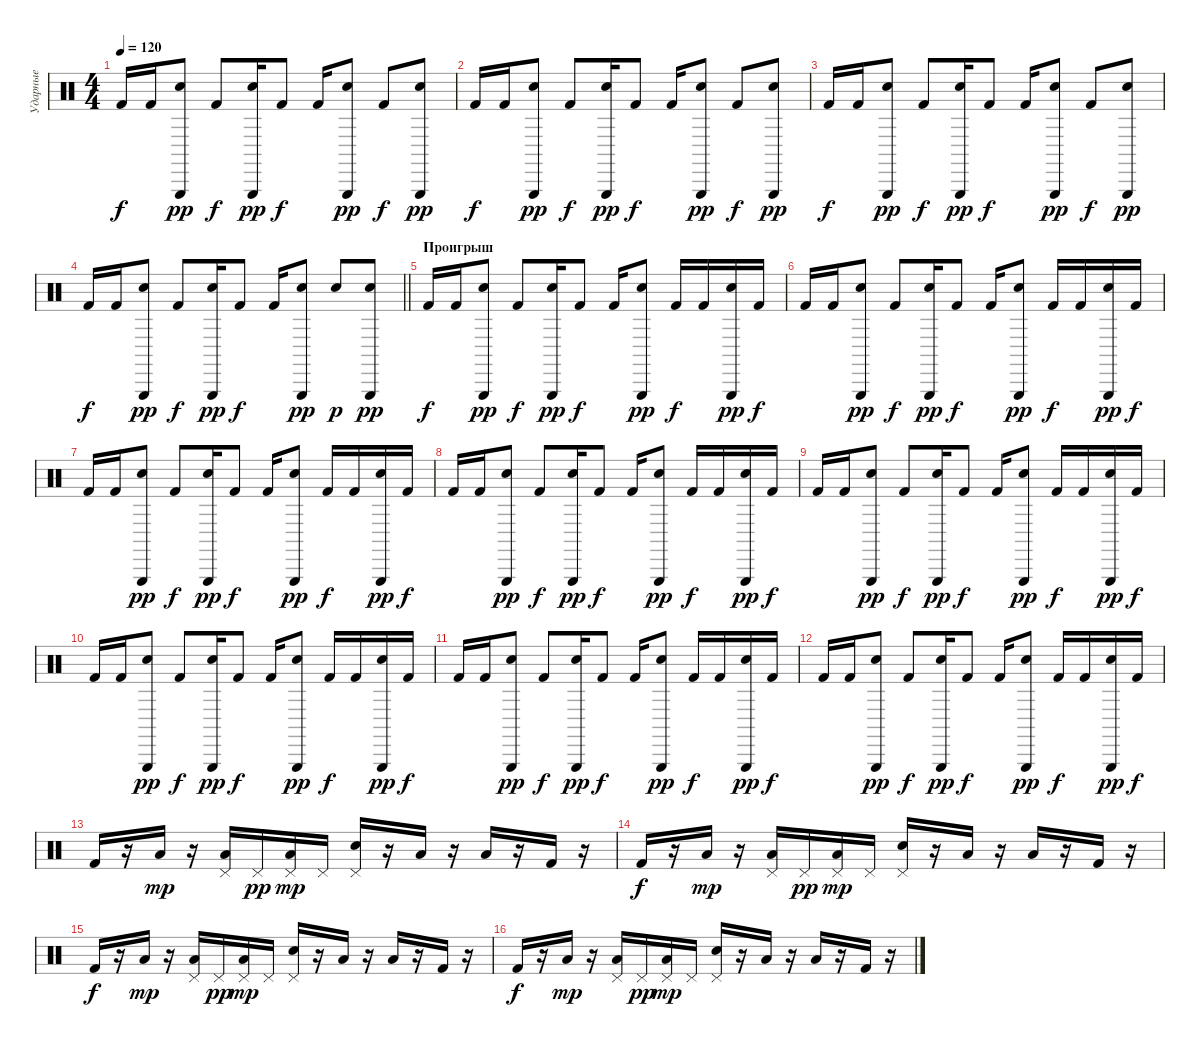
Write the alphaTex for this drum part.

\track ("Ударные" "Ударные") {instrument percussion}
\staff {score}
\articulation defaults
\ts (4 4)
\tempo 120
\clef neutral
\ks c "Kick (hit) 2".16{dy f} "Kick (hit) 2".16
("Triangle (hit)" "Electric Snare (hit)").8{dy pp} "Kick (hit) 2".8{dy f} ("Triangle (hit)" "Electric Snare (hit)").16{dy pp} "Kick (hit) 2".8{dy f} "Kick (hit) 2".16 ("Triangle (hit)" "Electric Snare (hit)").8{dy pp} "Kick (hit) 2".8{dy f} ("Triangle (hit)" "Electric Snare (hit)").8{dy pp} |
"Kick (hit) 2".16{dy f} "Kick (hit) 2".16 ("Triangle (hit)" "Electric Snare (hit)").8{dy pp} "Kick (hit) 2".8{dy f} ("Triangle (hit)" "Electric Snare (hit)").16{dy pp} "Kick (hit) 2".8{dy f} "Kick (hit) 2".16 ("Triangle (hit)" "Electric Snare (hit)").8{dy pp} "Kick (hit) 2".8{dy f} ("Triangle (hit)" "Electric Snare (hit)").8{dy pp} |
"Kick (hit) 2".16{dy f} "Kick (hit) 2".16 ("Triangle (hit)" "Electric Snare (hit)").8{dy pp} "Kick (hit) 2".8{dy f} ("Triangle (hit)" "Electric Snare (hit)").16{dy pp} "Kick (hit) 2".8{dy f} "Kick (hit) 2".16 ("Triangle (hit)" "Electric Snare (hit)").8{dy pp} "Kick (hit) 2".8{dy f} ("Triangle (hit)" "Electric Snare (hit)").8{dy pp} |
\barLineRight lightlight "Kick (hit) 2".16{dy f} "Kick (hit) 2".16
("Triangle (hit)" "Electric Snare (hit)").8{dy pp} "Kick (hit) 2".8{dy f} ("Triangle (hit)" "Electric Snare (hit)").16{dy pp} "Kick (hit) 2".8{dy f} "Kick (hit) 2".16 ("Triangle (hit)" "Electric Snare (hit)").8{dy pp} "Electric Snare (hit)".8{dy p} ("Triangle (hit)" "Electric Snare (hit)").8{dy pp} |
\section ("" "Проигрыш")
"Kick (hit) 2".16{dy f} "Kick (hit) 2".16 ("Triangle (hit)" "Electric Snare (hit)").8{dy pp} "Kick (hit) 2".8{dy f} ("Triangle (hit)" "Electric Snare (hit)").16{dy pp} "Kick (hit) 2".8{dy f} "Kick (hit) 2".16 ("Triangle (hit)" "Electric Snare (hit)").8{dy pp} "Kick (hit) 2".16{dy f} "Kick (hit) 2".16 ("Triangle (hit)" "Electric Snare (hit)").16{dy pp} "Kick (hit) 2".16{dy f} |
"Kick (hit) 2".16 "Kick (hit) 2".16 ("Triangle (hit)" "Electric Snare (hit)").8{dy pp} "Kick (hit) 2".8{dy f} ("Triangle (hit)" "Electric Snare (hit)").16{dy pp} "Kick (hit) 2".8{dy f} "Kick (hit) 2".16 ("Triangle (hit)" "Electric Snare (hit)").8{dy pp} "Kick (hit) 2".16{dy f} "Kick (hit) 2".16 ("Triangle (hit)" "Electric Snare (hit)").16{dy pp} "Kick (hit) 2".16{dy f} |
"Kick (hit) 2".16 "Kick (hit) 2".16 ("Triangle (hit)" "Electric Snare (hit)").8{dy pp} "Kick (hit) 2".8{dy f} ("Triangle (hit)" "Electric Snare (hit)").16{dy pp} "Kick (hit) 2".8{dy f} "Kick (hit) 2".16 ("Triangle (hit)" "Electric Snare (hit)").8{dy pp} "Kick (hit) 2".16{dy f} "Kick (hit) 2".16 ("Triangle (hit)" "Electric Snare (hit)").16{dy pp} "Kick (hit) 2".16{dy f} |
"Kick (hit) 2".16 "Kick (hit) 2".16 ("Triangle (hit)" "Electric Snare (hit)").8{dy pp} "Kick (hit) 2".8{dy f} ("Triangle (hit)" "Electric Snare (hit)").16{dy pp} "Kick (hit) 2".8{dy f} "Kick (hit) 2".16 ("Triangle (hit)" "Electric Snare (hit)").8{dy pp} "Kick (hit) 2".16{dy f} "Kick (hit) 2".16 ("Triangle (hit)" "Electric Snare (hit)").16{dy pp} "Kick (hit) 2".16{dy f} |
"Kick (hit) 2".16 "Kick (hit) 2".16 ("Triangle (hit)" "Electric Snare (hit)").8{dy pp} "Kick (hit) 2".8{dy f} ("Triangle (hit)" "Electric Snare (hit)").16{dy pp} "Kick (hit) 2".8{dy f} "Kick (hit) 2".16 ("Triangle (hit)" "Electric Snare (hit)").8{dy pp} "Kick (hit) 2".16{dy f} "Kick (hit) 2".16 ("Triangle (hit)" "Electric Snare (hit)").16{dy pp} "Kick (hit) 2".16{dy f} |
"Kick (hit) 2".16 "Kick (hit) 2".16 ("Triangle (hit)" "Electric Snare (hit)").8{dy pp} "Kick (hit) 2".8{dy f} ("Triangle (hit)" "Electric Snare (hit)").16{dy pp} "Kick (hit) 2".8{dy f} "Kick (hit) 2".16 ("Triangle (hit)" "Electric Snare (hit)").8{dy pp} "Kick (hit) 2".16{dy f} "Kick (hit) 2".16 ("Triangle (hit)" "Electric Snare (hit)").16{dy pp} "Kick (hit) 2".16{dy f} |
"Kick (hit) 2".16 "Kick (hit) 2".16 ("Triangle (hit)" "Electric Snare (hit)").8{dy pp} "Kick (hit) 2".8{dy f} ("Triangle (hit)" "Electric Snare (hit)").16{dy pp} "Kick (hit) 2".8{dy f} "Kick (hit) 2".16 ("Triangle (hit)" "Electric Snare (hit)").8{dy pp} "Kick (hit) 2".16{dy f} "Kick (hit) 2".16 ("Triangle (hit)" "Electric Snare (hit)").16{dy pp} "Kick (hit) 2".16{dy f} |
"Kick (hit) 2".16 "Kick (hit) 2".16 ("Triangle (hit)" "Electric Snare (hit)").8{dy pp} "Kick (hit) 2".8{dy f} ("Triangle (hit)" "Electric Snare (hit)").16{dy pp} "Kick (hit) 2".8{dy f} "Kick (hit) 2".16 ("Triangle (hit)" "Electric Snare (hit)").8{dy pp} "Kick (hit) 2".16{dy f} "Kick (hit) 2".16 ("Triangle (hit)" "Electric Snare (hit)").16{dy pp} "Kick (hit) 2".16{dy f} |
"Kick (hit) 2".16 r.16 "Low Floor Tom (hit)".16{dy mp} r.16 ("Pedal Hi-Hat (hit)" "Low Floor Tom (hit)").16 "Pedal Hi-Hat (hit)".16{dy pp} ("Pedal Hi-Hat (hit)" "Low Floor Tom (hit)").16{dy mp} "Pedal Hi-Hat (hit)".16 ("Pedal Hi-Hat (hit)" "Electric Snare (hit)").16 r.16 "Low Floor Tom (hit)".16 r.16 "Low Floor Tom (hit)".16 r.16 "Kick (hit) 2".16 r.16 |
"Kick (hit) 2".16{dy f} r.16 "Low Floor Tom (hit)".16{dy mp} r.16 ("Pedal Hi-Hat (hit)" "Low Floor Tom (hit)").16 "Pedal Hi-Hat (hit)".16{dy pp} ("Pedal Hi-Hat (hit)" "Low Floor Tom (hit)").16{dy mp} "Pedal Hi-Hat (hit)".16 ("Pedal Hi-Hat (hit)" "Electric Snare (hit)").16 r.16 "Low Floor Tom (hit)".16 r.16 "Low Floor Tom (hit)".16 r.16 "Kick (hit) 2".16 r.16 |
"Kick (hit) 2".16{dy f} r.16 "Low Floor Tom (hit)".16{dy mp} r.16 ("Pedal Hi-Hat (hit)" "Low Floor Tom (hit)").16 "Pedal Hi-Hat (hit)".16{dy pp} ("Pedal Hi-Hat (hit)" "Low Floor Tom (hit)").16{dy mp} "Pedal Hi-Hat (hit)".16 ("Pedal Hi-Hat (hit)" "Electric Snare (hit)").16 r.16 "Low Floor Tom (hit)".16 r.16 "Low Floor Tom (hit)".16 r.16 "Kick (hit) 2".16 r.16 |
"Kick (hit) 2".16{dy f} r.16 "Low Floor Tom (hit)".16{dy mp} r.16 ("Pedal Hi-Hat (hit)" "Low Floor Tom (hit)").16 "Pedal Hi-Hat (hit)".16{dy pp} ("Pedal Hi-Hat (hit)" "Low Floor Tom (hit)").16{dy mp} "Pedal Hi-Hat (hit)".16 ("Pedal Hi-Hat (hit)" "Electric Snare (hit)").16 r.16 "Low Floor Tom (hit)".16 r.16 "Low Floor Tom (hit)".16 r.16 "Kick (hit) 2".16 r.16
